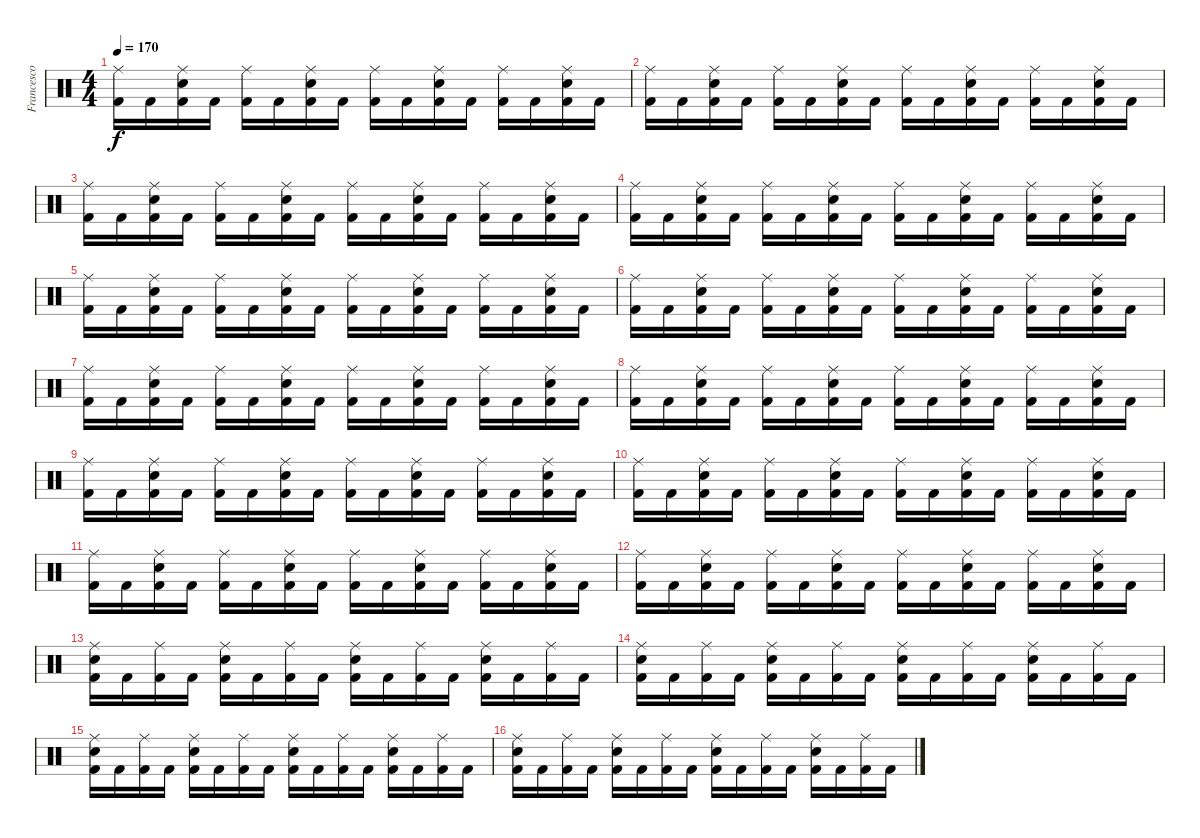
\track ("Francesco Tresa" "Francesco ") {instrument percussion}
\staff {score}
\articulation defaults
\ts (4 4)
\tempo 170
\clef neutral
\ks c
("Ride (middle)" "Kick (hit) 2").16{dy f} "Kick (hit) 2".16 ("Ride (middle)" "Kick (hit) 2" "Electric Snare (hit)").16 "Kick (hit) 2".16 ("Ride (middle)" "Kick (hit) 2").16 "Kick (hit) 2".16 ("Ride (middle)" "Kick (hit) 2" "Electric Snare (hit)").16 "Kick (hit) 2".16 ("Ride (middle)" "Kick (hit) 2").16 "Kick (hit) 2".16 ("Ride (middle)" "Kick (hit) 2" "Electric Snare (hit)").16 "Kick (hit) 2".16 ("Ride (middle)" "Kick (hit) 2").16 "Kick (hit) 2".16 ("Ride (middle)" "Kick (hit) 2" "Electric Snare (hit)").16 "Kick (hit) 2".16 |
("Ride (middle)" "Kick (hit) 2").16 "Kick (hit) 2".16 ("Ride (middle)" "Kick (hit) 2" "Electric Snare (hit)").16 "Kick (hit) 2".16 ("Ride (middle)" "Kick (hit) 2").16 "Kick (hit) 2".16 ("Ride (middle)" "Kick (hit) 2" "Electric Snare (hit)").16 "Kick (hit) 2".16 ("Ride (middle)" "Kick (hit) 2").16 "Kick (hit) 2".16 ("Ride (middle)" "Kick (hit) 2" "Electric Snare (hit)").16 "Kick (hit) 2".16 ("Ride (middle)" "Kick (hit) 2").16 "Kick (hit) 2".16 ("Ride (middle)" "Kick (hit) 2" "Electric Snare (hit)").16 "Kick (hit) 2".16 |
("Ride (middle)" "Kick (hit) 2").16 "Kick (hit) 2".16 ("Ride (middle)" "Kick (hit) 2" "Electric Snare (hit)").16 "Kick (hit) 2".16 ("Ride (middle)" "Kick (hit) 2").16 "Kick (hit) 2".16 ("Ride (middle)" "Kick (hit) 2" "Electric Snare (hit)").16 "Kick (hit) 2".16 ("Ride (middle)" "Kick (hit) 2").16 "Kick (hit) 2".16 ("Ride (middle)" "Kick (hit) 2" "Electric Snare (hit)").16 "Kick (hit) 2".16 ("Ride (middle)" "Kick (hit) 2").16 "Kick (hit) 2".16 ("Ride (middle)" "Kick (hit) 2" "Electric Snare (hit)").16 "Kick (hit) 2".16 |
("Ride (middle)" "Kick (hit) 2").16 "Kick (hit) 2".16 ("Ride (middle)" "Kick (hit) 2" "Electric Snare (hit)").16 "Kick (hit) 2".16 ("Ride (middle)" "Kick (hit) 2").16 "Kick (hit) 2".16 ("Ride (middle)" "Kick (hit) 2" "Electric Snare (hit)").16 "Kick (hit) 2".16 ("Ride (middle)" "Kick (hit) 2").16 "Kick (hit) 2".16 ("Ride (middle)" "Kick (hit) 2" "Electric Snare (hit)").16 "Kick (hit) 2".16 ("Ride (middle)" "Kick (hit) 2").16 "Kick (hit) 2".16 ("Ride (middle)" "Kick (hit) 2" "Electric Snare (hit)").16 "Kick (hit) 2".16 |
("Ride (middle)" "Kick (hit) 2").16 "Kick (hit) 2".16 ("Ride (middle)" "Kick (hit) 2" "Electric Snare (hit)").16 "Kick (hit) 2".16 ("Ride (middle)" "Kick (hit) 2").16 "Kick (hit) 2".16 ("Ride (middle)" "Kick (hit) 2" "Electric Snare (hit)").16 "Kick (hit) 2".16 ("Ride (middle)" "Kick (hit) 2").16 "Kick (hit) 2".16 ("Ride (middle)" "Kick (hit) 2" "Electric Snare (hit)").16 "Kick (hit) 2".16 ("Ride (middle)" "Kick (hit) 2").16 "Kick (hit) 2".16 ("Ride (middle)" "Kick (hit) 2" "Electric Snare (hit)").16 "Kick (hit) 2".16 |
("Ride (middle)" "Kick (hit) 2").16 "Kick (hit) 2".16 ("Ride (middle)" "Kick (hit) 2" "Electric Snare (hit)").16 "Kick (hit) 2".16 ("Ride (middle)" "Kick (hit) 2").16 "Kick (hit) 2".16 ("Ride (middle)" "Kick (hit) 2" "Electric Snare (hit)").16 "Kick (hit) 2".16 ("Ride (middle)" "Kick (hit) 2").16 "Kick (hit) 2".16 ("Ride (middle)" "Kick (hit) 2" "Electric Snare (hit)").16 "Kick (hit) 2".16 ("Ride (middle)" "Kick (hit) 2").16 "Kick (hit) 2".16 ("Ride (middle)" "Kick (hit) 2" "Electric Snare (hit)").16 "Kick (hit) 2".16 |
("Ride (middle)" "Kick (hit) 2").16 "Kick (hit) 2".16 ("Ride (middle)" "Kick (hit) 2" "Electric Snare (hit)").16 "Kick (hit) 2".16 ("Ride (middle)" "Kick (hit) 2").16 "Kick (hit) 2".16 ("Ride (middle)" "Kick (hit) 2" "Electric Snare (hit)").16 "Kick (hit) 2".16 ("Ride (middle)" "Kick (hit) 2").16 "Kick (hit) 2".16 ("Ride (middle)" "Kick (hit) 2" "Electric Snare (hit)").16 "Kick (hit) 2".16 ("Ride (middle)" "Kick (hit) 2").16 "Kick (hit) 2".16 ("Ride (middle)" "Kick (hit) 2" "Electric Snare (hit)").16 "Kick (hit) 2".16 |
("Ride (middle)" "Kick (hit) 2").16 "Kick (hit) 2".16 ("Ride (middle)" "Kick (hit) 2" "Electric Snare (hit)").16 "Kick (hit) 2".16 ("Ride (middle)" "Kick (hit) 2").16 "Kick (hit) 2".16 ("Ride (middle)" "Kick (hit) 2" "Electric Snare (hit)").16 "Kick (hit) 2".16 ("Ride (middle)" "Kick (hit) 2").16 "Kick (hit) 2".16 ("Ride (middle)" "Kick (hit) 2" "Electric Snare (hit)").16 "Kick (hit) 2".16 ("Ride (middle)" "Kick (hit) 2").16 "Kick (hit) 2".16 ("Ride (middle)" "Kick (hit) 2" "Electric Snare (hit)").16 "Kick (hit) 2".16 |
("Ride (middle)" "Kick (hit) 2").16 "Kick (hit) 2".16 ("Ride (middle)" "Kick (hit) 2" "Electric Snare (hit)").16 "Kick (hit) 2".16 ("Ride (middle)" "Kick (hit) 2").16 "Kick (hit) 2".16 ("Ride (middle)" "Kick (hit) 2" "Electric Snare (hit)").16 "Kick (hit) 2".16 ("Ride (middle)" "Kick (hit) 2").16 "Kick (hit) 2".16 ("Ride (middle)" "Kick (hit) 2" "Electric Snare (hit)").16 "Kick (hit) 2".16 ("Ride (middle)" "Kick (hit) 2").16 "Kick (hit) 2".16 ("Ride (middle)" "Kick (hit) 2" "Electric Snare (hit)").16 "Kick (hit) 2".16 |
("Ride (middle)" "Kick (hit) 2").16 "Kick (hit) 2".16 ("Ride (middle)" "Kick (hit) 2" "Electric Snare (hit)").16 "Kick (hit) 2".16 ("Ride (middle)" "Kick (hit) 2").16 "Kick (hit) 2".16 ("Ride (middle)" "Kick (hit) 2" "Electric Snare (hit)").16 "Kick (hit) 2".16 ("Ride (middle)" "Kick (hit) 2").16 "Kick (hit) 2".16 ("Ride (middle)" "Kick (hit) 2" "Electric Snare (hit)").16 "Kick (hit) 2".16 ("Ride (middle)" "Kick (hit) 2").16 "Kick (hit) 2".16 ("Ride (middle)" "Kick (hit) 2" "Electric Snare (hit)").16 "Kick (hit) 2".16 |
("Ride (middle)" "Kick (hit) 2").16 "Kick (hit) 2".16 ("Ride (middle)" "Kick (hit) 2" "Electric Snare (hit)").16 "Kick (hit) 2".16 ("Ride (middle)" "Kick (hit) 2").16 "Kick (hit) 2".16 ("Ride (middle)" "Kick (hit) 2" "Electric Snare (hit)").16 "Kick (hit) 2".16 ("Ride (middle)" "Kick (hit) 2").16 "Kick (hit) 2".16 ("Ride (middle)" "Kick (hit) 2" "Electric Snare (hit)").16 "Kick (hit) 2".16 ("Ride (middle)" "Kick (hit) 2").16 "Kick (hit) 2".16 ("Ride (middle)" "Kick (hit) 2" "Electric Snare (hit)").16 "Kick (hit) 2".16 |
("Ride (middle)" "Kick (hit) 2").16 "Kick (hit) 2".16 ("Ride (middle)" "Kick (hit) 2" "Electric Snare (hit)").16 "Kick (hit) 2".16 ("Ride (middle)" "Kick (hit) 2").16 "Kick (hit) 2".16 ("Ride (middle)" "Kick (hit) 2" "Electric Snare (hit)").16 "Kick (hit) 2".16 ("Ride (middle)" "Kick (hit) 2").16 "Kick (hit) 2".16 ("Ride (middle)" "Kick (hit) 2" "Electric Snare (hit)").16 "Kick (hit) 2".16 ("Ride (middle)" "Kick (hit) 2").16 "Kick (hit) 2".16 ("Ride (middle)" "Kick (hit) 2" "Electric Snare (hit)").16 "Kick (hit) 2".16 |
("Ride (middle)" "Kick (hit) 2" "Electric Snare (hit)").16 "Kick (hit) 2".16 ("Ride (middle)" "Kick (hit) 2").16 "Kick (hit) 2".16 ("Ride (middle)" "Kick (hit) 2" "Electric Snare (hit)").16 "Kick (hit) 2".16 ("Ride (middle)" "Kick (hit) 2").16 "Kick (hit) 2".16 ("Ride (middle)" "Kick (hit) 2" "Electric Snare (hit)").16 "Kick (hit) 2".16 ("Ride (middle)" "Kick (hit) 2").16 "Kick (hit) 2".16 ("Ride (middle)" "Kick (hit) 2" "Electric Snare (hit)").16 "Kick (hit) 2".16 ("Ride (middle)" "Kick (hit) 2").16 "Kick (hit) 2".16 |
("Ride (middle)" "Kick (hit) 2" "Electric Snare (hit)").16 "Kick (hit) 2".16 ("Ride (middle)" "Kick (hit) 2").16 "Kick (hit) 2".16 ("Ride (middle)" "Kick (hit) 2" "Electric Snare (hit)").16 "Kick (hit) 2".16 ("Ride (middle)" "Kick (hit) 2").16 "Kick (hit) 2".16 ("Ride (middle)" "Kick (hit) 2" "Electric Snare (hit)").16 "Kick (hit) 2".16 ("Ride (middle)" "Kick (hit) 2").16 "Kick (hit) 2".16 ("Ride (middle)" "Kick (hit) 2" "Electric Snare (hit)").16 "Kick (hit) 2".16 ("Ride (middle)" "Kick (hit) 2").16 "Kick (hit) 2".16 |
("Ride (middle)" "Kick (hit) 2" "Electric Snare (hit)").16 "Kick (hit) 2".16 ("Ride (middle)" "Kick (hit) 2").16 "Kick (hit) 2".16 ("Ride (middle)" "Kick (hit) 2" "Electric Snare (hit)").16 "Kick (hit) 2".16 ("Ride (middle)" "Kick (hit) 2").16 "Kick (hit) 2".16 ("Ride (middle)" "Kick (hit) 2" "Electric Snare (hit)").16 "Kick (hit) 2".16 ("Ride (middle)" "Kick (hit) 2").16 "Kick (hit) 2".16 ("Ride (middle)" "Kick (hit) 2" "Electric Snare (hit)").16 "Kick (hit) 2".16 ("Ride (middle)" "Kick (hit) 2").16 "Kick (hit) 2".16 |
("Ride (middle)" "Kick (hit) 2" "Electric Snare (hit)").16 "Kick (hit) 2".16 ("Ride (middle)" "Kick (hit) 2").16 "Kick (hit) 2".16 ("Ride (middle)" "Kick (hit) 2" "Electric Snare (hit)").16 "Kick (hit) 2".16 ("Ride (middle)" "Kick (hit) 2").16 "Kick (hit) 2".16 ("Ride (middle)" "Kick (hit) 2" "Electric Snare (hit)").16 "Kick (hit) 2".16 ("Ride (middle)" "Kick (hit) 2").16 "Kick (hit) 2".16 ("Ride (middle)" "Kick (hit) 2" "Electric Snare (hit)").16 "Kick (hit) 2".16 ("Ride (middle)" "Kick (hit) 2").16 "Kick (hit) 2".16
